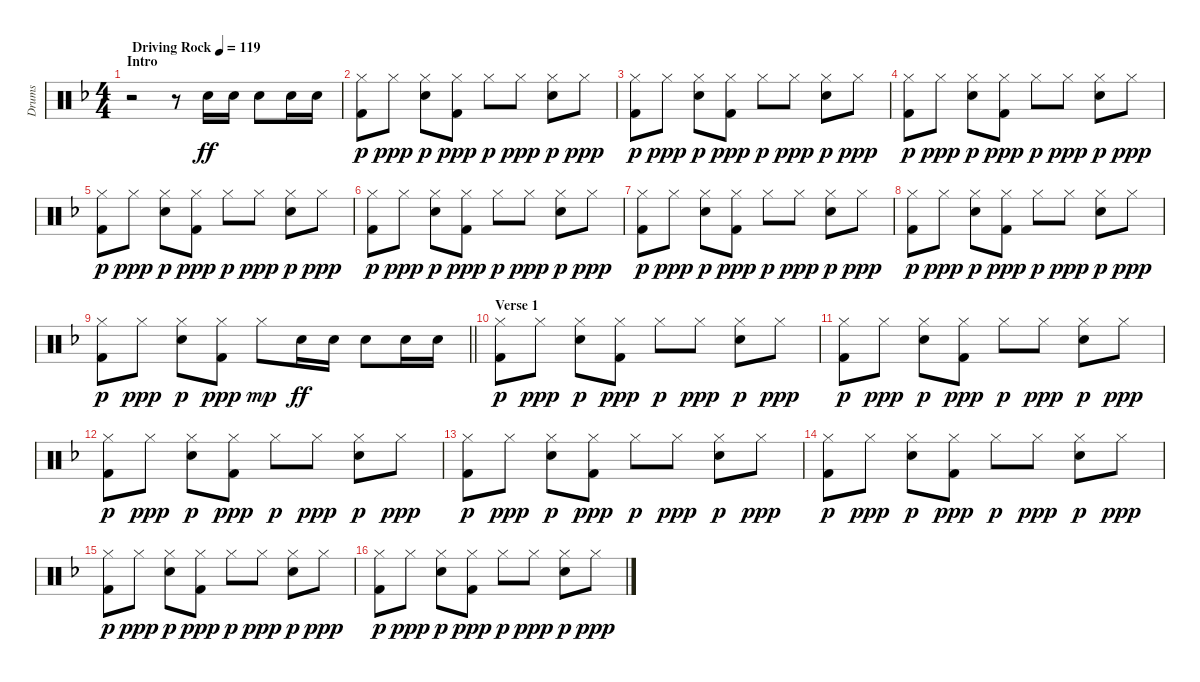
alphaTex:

\track ("Drums" "Drums") {instrument percussion}
\staff {score}
\articulation defaults
\ts (4 4)
\section ("" "Intro")
\tempo (119 "Driving Rock")
\clef neutral
\ks f
r.2{dy ff} r.8 "Electric Snare (hit)".16 "Electric Snare (hit)".16 "Electric Snare (hit)".8 "Electric Snare (hit)".16 "Electric Snare (hit)".16 |
("Hi-Hat (closed)" "Kick (hit) 2").8{dy p} "Hi-Hat (closed)".8{dy ppp} ("Hi-Hat (closed)" "Electric Snare (hit)").8{dy p} ("Hi-Hat (closed)" "Kick (hit) 2").8{dy ppp} "Hi-Hat (closed)".8{dy p} "Hi-Hat (closed)".8{dy ppp} ("Hi-Hat (closed)" "Electric Snare (hit)").8{dy p} "Hi-Hat (closed)".8{dy ppp} |
("Hi-Hat (closed)" "Kick (hit) 2").8{dy p} "Hi-Hat (closed)".8{dy ppp} ("Hi-Hat (closed)" "Electric Snare (hit)").8{dy p} ("Hi-Hat (closed)" "Kick (hit) 2").8{dy ppp} "Hi-Hat (closed)".8{dy p} "Hi-Hat (closed)".8{dy ppp} ("Hi-Hat (closed)" "Electric Snare (hit)").8{dy p} "Hi-Hat (closed)".8{dy ppp} |
("Hi-Hat (closed)" "Kick (hit) 2").8{dy p} "Hi-Hat (closed)".8{dy ppp} ("Hi-Hat (closed)" "Electric Snare (hit)").8{dy p} ("Hi-Hat (closed)" "Kick (hit) 2").8{dy ppp} "Hi-Hat (closed)".8{dy p} "Hi-Hat (closed)".8{dy ppp} ("Hi-Hat (closed)" "Electric Snare (hit)").8{dy p} "Hi-Hat (closed)".8{dy ppp} |
("Hi-Hat (closed)" "Kick (hit) 2").8{dy p} "Hi-Hat (closed)".8{dy ppp} ("Hi-Hat (closed)" "Electric Snare (hit)").8{dy p} ("Hi-Hat (closed)" "Kick (hit) 2").8{dy ppp} "Hi-Hat (closed)".8{dy p} "Hi-Hat (closed)".8{dy ppp} ("Hi-Hat (closed)" "Electric Snare (hit)").8{dy p} "Hi-Hat (closed)".8{dy ppp} |
("Hi-Hat (closed)" "Kick (hit) 2").8{dy p} "Hi-Hat (closed)".8{dy ppp} ("Hi-Hat (closed)" "Electric Snare (hit)").8{dy p} ("Hi-Hat (closed)" "Kick (hit) 2").8{dy ppp} "Hi-Hat (closed)".8{dy p} "Hi-Hat (closed)".8{dy ppp} ("Hi-Hat (closed)" "Electric Snare (hit)").8{dy p} "Hi-Hat (closed)".8{dy ppp} |
("Hi-Hat (closed)" "Kick (hit) 2").8{dy p} "Hi-Hat (closed)".8{dy ppp} ("Hi-Hat (closed)" "Electric Snare (hit)").8{dy p} ("Hi-Hat (closed)" "Kick (hit) 2").8{dy ppp} "Hi-Hat (closed)".8{dy p} "Hi-Hat (closed)".8{dy ppp} ("Hi-Hat (closed)" "Electric Snare (hit)").8{dy p} "Hi-Hat (closed)".8{dy ppp} |
("Hi-Hat (closed)" "Kick (hit) 2").8{dy p} "Hi-Hat (closed)".8{dy ppp} ("Hi-Hat (closed)" "Electric Snare (hit)").8{dy p} ("Hi-Hat (closed)" "Kick (hit) 2").8{dy ppp} "Hi-Hat (closed)".8{dy p} "Hi-Hat (closed)".8{dy ppp} ("Hi-Hat (closed)" "Electric Snare (hit)").8{dy p} "Hi-Hat (closed)".8{dy ppp} |
\barLineRight lightlight
("Hi-Hat (closed)" "Kick (hit) 2").8{dy p} "Hi-Hat (closed)".8{dy ppp} ("Hi-Hat (closed)" "Electric Snare (hit)").8{dy p} ("Hi-Hat (closed)" "Kick (hit) 2").8{dy ppp} "Hi-Hat (closed)".8{dy mp} "Electric Snare (hit)".16{dy ff} "Electric Snare (hit)".16 "Electric Snare (hit)".8 "Electric Snare (hit)".16 "Electric Snare (hit)".16 |
\section ("" "Verse 1")
("Hi-Hat (closed)" "Kick (hit) 2").8{dy p} "Hi-Hat (closed)".8{dy ppp} ("Hi-Hat (closed)" "Electric Snare (hit)").8{dy p} ("Hi-Hat (closed)" "Kick (hit) 2").8{dy ppp} "Hi-Hat (closed)".8{dy p} "Hi-Hat (closed)".8{dy ppp} ("Hi-Hat (closed)" "Electric Snare (hit)").8{dy p} "Hi-Hat (closed)".8{dy ppp} |
("Hi-Hat (closed)" "Kick (hit) 2").8{dy p} "Hi-Hat (closed)".8{dy ppp} ("Hi-Hat (closed)" "Electric Snare (hit)").8{dy p} ("Hi-Hat (closed)" "Kick (hit) 2").8{dy ppp} "Hi-Hat (closed)".8{dy p} "Hi-Hat (closed)".8{dy ppp} ("Hi-Hat (closed)" "Electric Snare (hit)").8{dy p} "Hi-Hat (closed)".8{dy ppp} |
("Hi-Hat (closed)" "Kick (hit) 2").8{dy p} "Hi-Hat (closed)".8{dy ppp} ("Hi-Hat (closed)" "Electric Snare (hit)").8{dy p} ("Hi-Hat (closed)" "Kick (hit) 2").8{dy ppp} "Hi-Hat (closed)".8{dy p} "Hi-Hat (closed)".8{dy ppp} ("Hi-Hat (closed)" "Electric Snare (hit)").8{dy p} "Hi-Hat (closed)".8{dy ppp} |
("Hi-Hat (closed)" "Kick (hit) 2").8{dy p} "Hi-Hat (closed)".8{dy ppp} ("Hi-Hat (closed)" "Electric Snare (hit)").8{dy p} ("Hi-Hat (closed)" "Kick (hit) 2").8{dy ppp} "Hi-Hat (closed)".8{dy p} "Hi-Hat (closed)".8{dy ppp} ("Hi-Hat (closed)" "Electric Snare (hit)").8{dy p} "Hi-Hat (closed)".8{dy ppp} |
("Hi-Hat (closed)" "Kick (hit) 2").8{dy p} "Hi-Hat (closed)".8{dy ppp} ("Hi-Hat (closed)" "Electric Snare (hit)").8{dy p} ("Hi-Hat (closed)" "Kick (hit) 2").8{dy ppp} "Hi-Hat (closed)".8{dy p} "Hi-Hat (closed)".8{dy ppp} ("Hi-Hat (closed)" "Electric Snare (hit)").8{dy p} "Hi-Hat (closed)".8{dy ppp} |
("Hi-Hat (closed)" "Kick (hit) 2").8{dy p} "Hi-Hat (closed)".8{dy ppp} ("Hi-Hat (closed)" "Electric Snare (hit)").8{dy p} ("Hi-Hat (closed)" "Kick (hit) 2").8{dy ppp} "Hi-Hat (closed)".8{dy p} "Hi-Hat (closed)".8{dy ppp} ("Hi-Hat (closed)" "Electric Snare (hit)").8{dy p} "Hi-Hat (closed)".8{dy ppp} |
("Hi-Hat (closed)" "Kick (hit) 2").8{dy p} "Hi-Hat (closed)".8{dy ppp} ("Hi-Hat (closed)" "Electric Snare (hit)").8{dy p} ("Hi-Hat (closed)" "Kick (hit) 2").8{dy ppp} "Hi-Hat (closed)".8{dy p} "Hi-Hat (closed)".8{dy ppp} ("Hi-Hat (closed)" "Electric Snare (hit)").8{dy p} "Hi-Hat (closed)".8{dy ppp}
